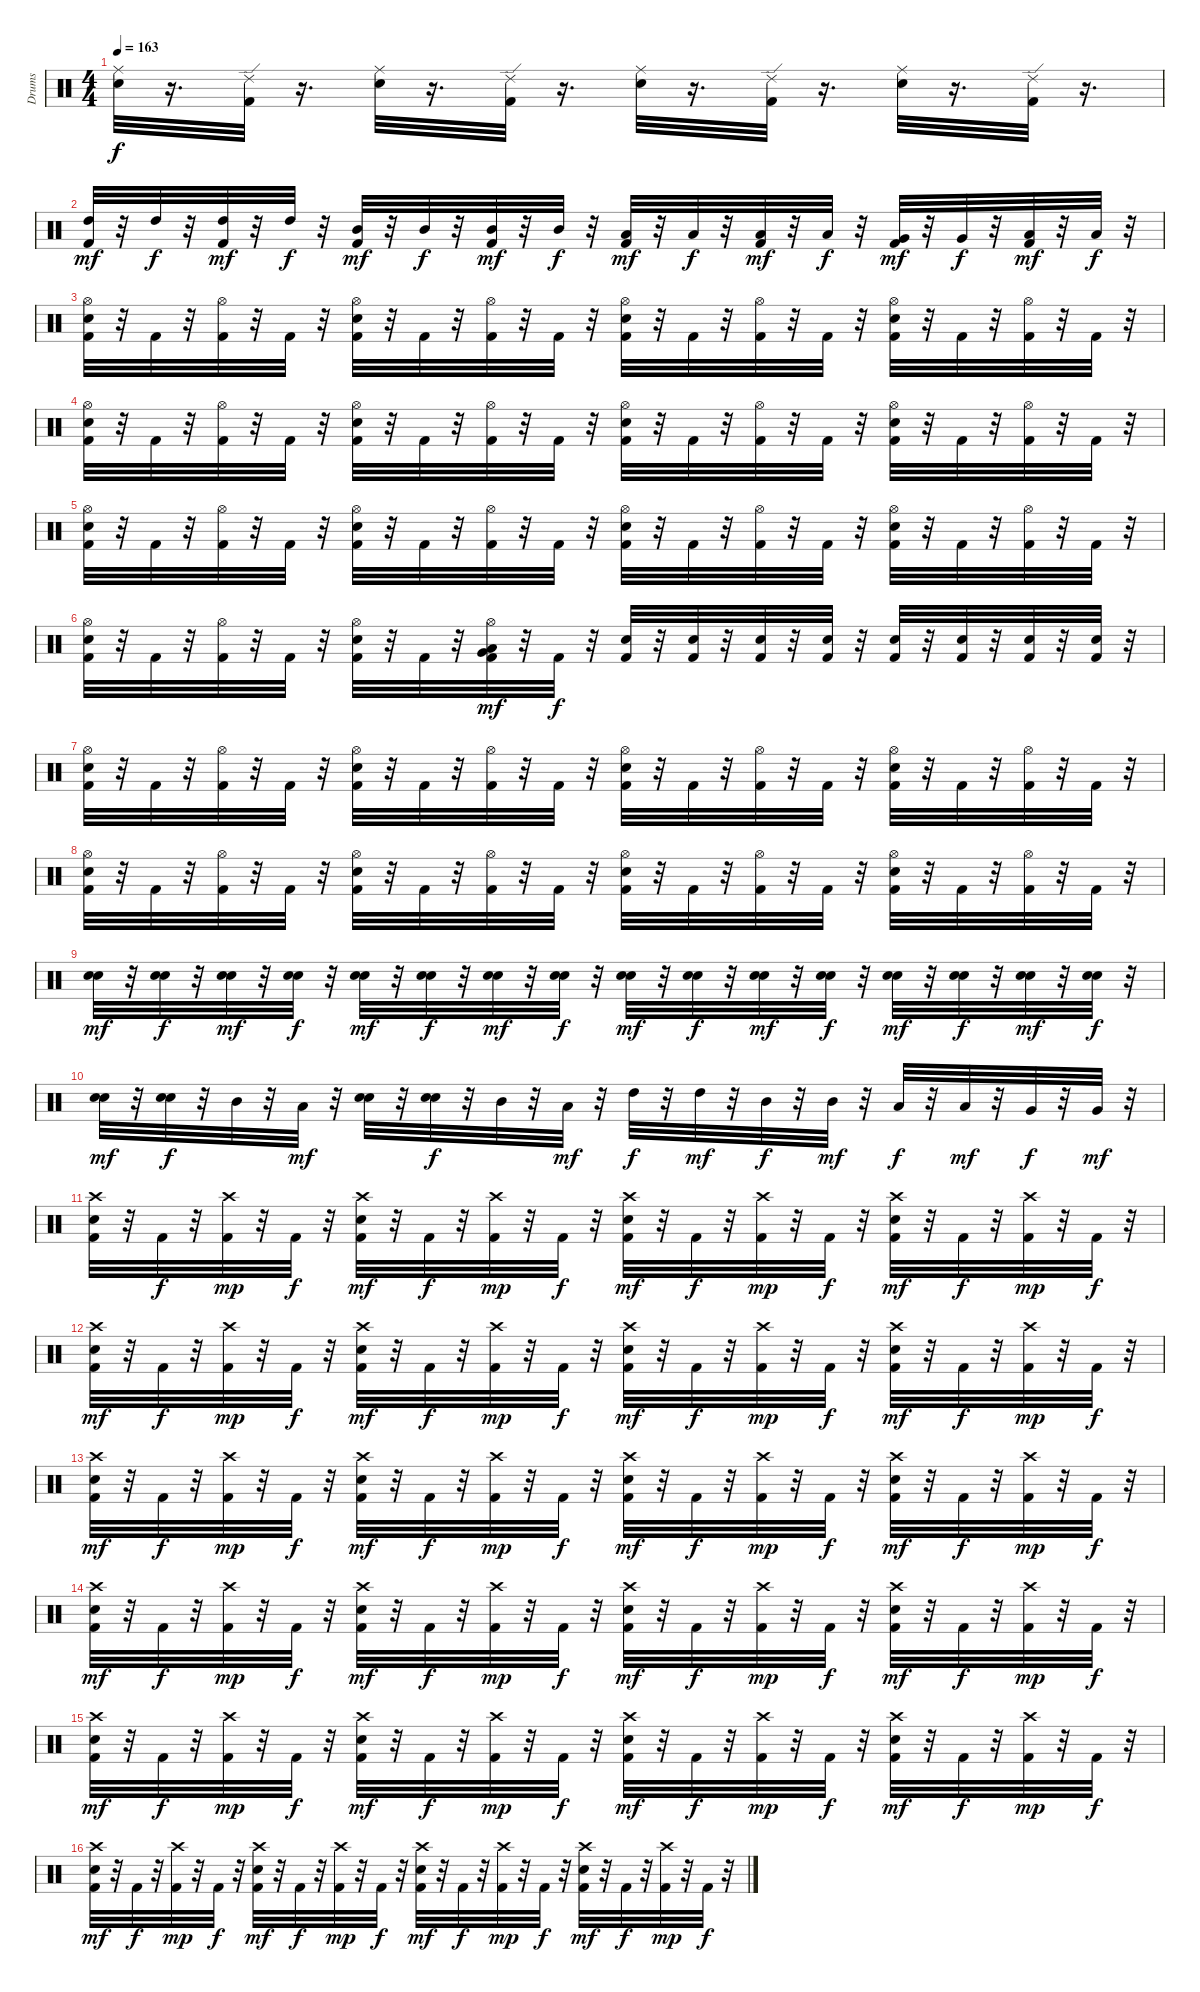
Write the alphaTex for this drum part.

\track ("Drums" "Drums") {instrument percussion}
\staff {score}
\articulation defaults
\ts (4 4)
\tempo 163
\clef neutral
\ks c
("Snare (hit) 2" "Ride (middle)").32{dy f} r.16{d} ("Kick (hit) 2" "Ride (edge) 2").32 r.16{d} ("Snare (hit) 2" "Ride (middle)").32 r.16{d} ("Kick (hit) 2" "Ride (edge) 2").32 r.16{d} ("Snare (hit) 2" "Ride (middle)").32 r.16{d} ("Kick (hit) 2" "Ride (edge) 2").32 r.16{d} ("Snare (hit) 2" "Ride (middle)").32 r.16{d} ("Kick (hit) 2" "Ride (edge) 2").32 r.16{d} |
("Kick (hit) 2" "High Tom (hit)").32{dy mf} r.32 "High Tom (hit)".32{dy f} r.32 ("Kick (hit) 2" "High Tom (hit)").32{dy mf} r.32 "High Tom (hit)".32{dy f} r.32 ("Kick (hit) 2" "Mid Tom (hit)").32{dy mf} r.32 "Mid Tom (hit)".32{dy f} r.32 ("Kick (hit) 2" "Mid Tom (hit)").32{dy mf} r.32 "Mid Tom (hit)".32{dy f} r.32 ("Kick (hit) 2" "Low Tom (hit)").32{dy mf} r.32 "Low Tom (hit)".32{dy f} r.32 ("Kick (hit) 2" "Low Tom (hit)").32{dy mf} r.32 "Low Tom (hit)".32{dy f} r.32 ("Kick (hit) 2" "Very Low Tom (hit)").32{dy mf} r.32 "Very Low Tom (hit)".32{dy f} r.32 ("Kick (hit) 2" "Low Floor Tom (hit)").32{dy mf} r.32 "Low Floor Tom (hit)".32{dy f} r.32 |
("Kick (hit) 2" "Snare (hit) 2" "Hi-Hat (open)").32 r.32 "Kick (hit) 2".32 r.32 ("Kick (hit) 2" "Hi-Hat (open)").32 r.32 "Kick (hit) 2".32 r.32 ("Kick (hit) 2" "Snare (hit) 2" "Hi-Hat (open)").32 r.32 "Kick (hit) 2".32 r.32 ("Kick (hit) 2" "Hi-Hat (open)").32 r.32 "Kick (hit) 2".32 r.32 ("Kick (hit) 2" "Snare (hit) 2" "Hi-Hat (open)").32 r.32 "Kick (hit) 2".32 r.32 ("Kick (hit) 2" "Hi-Hat (open)").32 r.32 "Kick (hit) 2".32 r.32 ("Kick (hit) 2" "Snare (hit) 2" "Hi-Hat (open)").32 r.32 "Kick (hit) 2".32 r.32 ("Kick (hit) 2" "Hi-Hat (open)").32 r.32 "Kick (hit) 2".32 r.32 |
("Kick (hit) 2" "Snare (hit) 2" "Hi-Hat (open)").32 r.32 "Kick (hit) 2".32 r.32 ("Kick (hit) 2" "Hi-Hat (open)").32 r.32 "Kick (hit) 2".32 r.32 ("Kick (hit) 2" "Snare (hit) 2" "Hi-Hat (open)").32 r.32 "Kick (hit) 2".32 r.32 ("Kick (hit) 2" "Hi-Hat (open)").32 r.32 "Kick (hit) 2".32 r.32 ("Kick (hit) 2" "Snare (hit) 2" "Hi-Hat (open)").32 r.32 "Kick (hit) 2".32 r.32 ("Kick (hit) 2" "Hi-Hat (open)").32 r.32 "Kick (hit) 2".32 r.32 ("Kick (hit) 2" "Snare (hit) 2" "Hi-Hat (open)").32 r.32 "Kick (hit) 2".32 r.32 ("Kick (hit) 2" "Hi-Hat (open)").32 r.32 "Kick (hit) 2".32 r.32 |
("Kick (hit) 2" "Snare (hit) 2" "Hi-Hat (open)").32 r.32 "Kick (hit) 2".32 r.32 ("Kick (hit) 2" "Hi-Hat (open)").32 r.32 "Kick (hit) 2".32 r.32 ("Kick (hit) 2" "Snare (hit) 2" "Hi-Hat (open)").32 r.32 "Kick (hit) 2".32 r.32 ("Kick (hit) 2" "Hi-Hat (open)").32 r.32 "Kick (hit) 2".32 r.32 ("Kick (hit) 2" "Snare (hit) 2" "Hi-Hat (open)").32 r.32 "Kick (hit) 2".32 r.32 ("Kick (hit) 2" "Hi-Hat (open)").32 r.32 "Kick (hit) 2".32 r.32 ("Kick (hit) 2" "Snare (hit) 2" "Hi-Hat (open)").32 r.32 "Kick (hit) 2".32 r.32 ("Kick (hit) 2" "Hi-Hat (open)").32 r.32 "Kick (hit) 2".32 r.32 |
("Kick (hit) 2" "Snare (hit) 2" "Hi-Hat (open)").32 r.32 "Kick (hit) 2".32 r.32 ("Kick (hit) 2" "Hi-Hat (open)").32 r.32 "Kick (hit) 2".32 r.32 ("Kick (hit) 2" "Snare (hit) 2" "Hi-Hat (open)").32 r.32 "Kick (hit) 2".32 r.32 ("Kick (hit) 2" "Low Floor Tom (hit)" "Very Low Tom (hit)" "Hi-Hat (open)").32{dy mf} r.32 "Kick (hit) 2".32{dy f} r.32 ("Kick (hit) 2" "Snare (hit) 2").32 r.32 ("Kick (hit) 2" "Snare (hit) 2").32 r.32 ("Kick (hit) 2" "Snare (hit) 2").32 r.32 ("Kick (hit) 2" "Snare (hit) 2").32 r.32 ("Snare (hit) 2" "Kick (hit) 2").32 r.32 ("Kick (hit) 2" "Snare (hit) 2").32 r.32 ("Snare (hit) 2" "Kick (hit) 2").32 r.32 ("Kick (hit) 2" "Snare (hit) 2").32 r.32 |
("Kick (hit) 2" "Snare (hit) 2" "Hi-Hat (open)").32 r.32 "Kick (hit) 2".32 r.32 ("Kick (hit) 2" "Hi-Hat (open)").32 r.32 "Kick (hit) 2".32 r.32 ("Kick (hit) 2" "Snare (hit) 2" "Hi-Hat (open)").32 r.32 "Kick (hit) 2".32 r.32 ("Kick (hit) 2" "Hi-Hat (open)").32 r.32 "Kick (hit) 2".32 r.32 ("Kick (hit) 2" "Snare (hit) 2" "Hi-Hat (open)").32 r.32 "Kick (hit) 2".32 r.32 ("Kick (hit) 2" "Hi-Hat (open)").32 r.32 "Kick (hit) 2".32 r.32 ("Kick (hit) 2" "Snare (hit) 2" "Hi-Hat (open)").32 r.32 "Kick (hit) 2".32 r.32 ("Kick (hit) 2" "Hi-Hat (open)").32 r.32 "Kick (hit) 2".32 r.32 |
("Kick (hit) 2" "Snare (hit) 2" "Hi-Hat (open)").32 r.32 "Kick (hit) 2".32 r.32 ("Kick (hit) 2" "Hi-Hat (open)").32 r.32 "Kick (hit) 2".32 r.32 ("Kick (hit) 2" "Snare (hit) 2" "Hi-Hat (open)").32 r.32 "Kick (hit) 2".32 r.32 ("Kick (hit) 2" "Hi-Hat (open)").32 r.32 "Kick (hit) 2".32 r.32 ("Kick (hit) 2" "Snare (hit) 2" "Hi-Hat (open)").32 r.32 "Kick (hit) 2".32 r.32 ("Kick (hit) 2" "Hi-Hat (open)").32 r.32 "Kick (hit) 2".32 r.32 ("Kick (hit) 2" "Snare (hit) 2" "Hi-Hat (open)").32 r.32 "Kick (hit) 2".32 r.32 ("Kick (hit) 2" "Hi-Hat (open)").32 r.32 "Kick (hit) 2".32 r.32 |
("Snare (hit) 2" "Electric Snare (hit)").32{dy mf} r.32 ("Snare (hit) 2" "Electric Snare (hit)").32{dy f} r.32 ("Snare (hit) 2" "Electric Snare (hit)").32{dy mf} r.32 ("Snare (hit) 2" "Electric Snare (hit)").32{dy f} r.32 ("Snare (hit) 2" "Electric Snare (hit)").32{dy mf} r.32 ("Snare (hit) 2" "Electric Snare (hit)").32{dy f} r.32 ("Snare (hit) 2" "Electric Snare (hit)").32{dy mf} r.32 ("Snare (hit) 2" "Electric Snare (hit)").32{dy f} r.32 ("Snare (hit) 2" "Electric Snare (hit)").32{dy mf} r.32 ("Snare (hit) 2" "Electric Snare (hit)").32{dy f} r.32 ("Snare (hit) 2" "Electric Snare (hit)").32{dy mf} r.32 ("Snare (hit) 2" "Electric Snare (hit)").32{dy f} r.32 ("Snare (hit) 2" "Electric Snare (hit)").32{dy mf} r.32 ("Snare (hit) 2" "Electric Snare (hit)").32{dy f} r.32 ("Snare (hit) 2" "Electric Snare (hit)").32{dy mf} r.32 ("Snare (hit) 2" "Electric Snare (hit)").32{dy f} r.32 |
("Snare (hit) 2" "Electric Snare (hit)").32{dy mf} r.32 ("Snare (hit) 2" "Electric Snare (hit)").32{dy f} r.32 "Mid Tom (hit)".32 r.32 "Low Tom (hit)".32{dy mf} r.32 ("Snare (hit) 2" "Electric Snare (hit)").32 r.32 ("Snare (hit) 2" "Electric Snare (hit)").32{dy f} r.32 "Mid Tom (hit)".32 r.32 "Low Tom (hit)".32{dy mf} r.32 "High Tom (hit)".32{dy f} r.32 "High Tom (hit)".32{dy mf} r.32 "Mid Tom (hit)".32{dy f} r.32 "Mid Tom (hit)".32{dy mf} r.32 "Low Tom (hit)".32{dy f} r.32 "Low Tom (hit)".32{dy mf} r.32 "Very Low Tom (hit)".32{dy f} r.32 "Very Low Tom (hit)".32{dy mf} r.32 |
("Kick (hit) 2" "Snare (hit) 2" "Crash high (hit)").32 r.32 "Kick (hit) 2".32{dy f} r.32 ("Kick (hit) 2" "Crash high (hit)").32{dy mp} r.32 "Kick (hit) 2".32{dy f} r.32 ("Kick (hit) 2" "Snare (hit) 2" "Crash high (hit)").32{dy mf} r.32 "Kick (hit) 2".32{dy f} r.32 ("Kick (hit) 2" "Crash high (hit)").32{dy mp} r.32 "Kick (hit) 2".32{dy f} r.32 ("Kick (hit) 2" "Snare (hit) 2" "Crash high (hit)").32{dy mf} r.32 "Kick (hit) 2".32{dy f} r.32 ("Kick (hit) 2" "Crash high (hit)").32{dy mp} r.32 "Kick (hit) 2".32{dy f} r.32 ("Kick (hit) 2" "Snare (hit) 2" "Crash high (hit)").32{dy mf} r.32 "Kick (hit) 2".32{dy f} r.32 ("Kick (hit) 2" "Crash high (hit)").32{dy mp} r.32 "Kick (hit) 2".32{dy f} r.32 |
("Kick (hit) 2" "Snare (hit) 2" "Crash high (hit)").32{dy mf} r.32 "Kick (hit) 2".32{dy f} r.32 ("Kick (hit) 2" "Crash high (hit)").32{dy mp} r.32 "Kick (hit) 2".32{dy f} r.32 ("Kick (hit) 2" "Snare (hit) 2" "Crash high (hit)").32{dy mf} r.32 "Kick (hit) 2".32{dy f} r.32 ("Kick (hit) 2" "Crash high (hit)").32{dy mp} r.32 "Kick (hit) 2".32{dy f} r.32 ("Kick (hit) 2" "Snare (hit) 2" "Crash high (hit)").32{dy mf} r.32 "Kick (hit) 2".32{dy f} r.32 ("Kick (hit) 2" "Crash high (hit)").32{dy mp} r.32 "Kick (hit) 2".32{dy f} r.32 ("Kick (hit) 2" "Snare (hit) 2" "Crash high (hit)").32{dy mf} r.32 "Kick (hit) 2".32{dy f} r.32 ("Kick (hit) 2" "Crash high (hit)").32{dy mp} r.32 "Kick (hit) 2".32{dy f} r.32 |
("Kick (hit) 2" "Snare (hit) 2" "Crash high (hit)").32{dy mf} r.32 "Kick (hit) 2".32{dy f} r.32 ("Kick (hit) 2" "Crash high (hit)").32{dy mp} r.32 "Kick (hit) 2".32{dy f} r.32 ("Kick (hit) 2" "Snare (hit) 2" "Crash high (hit)").32{dy mf} r.32 "Kick (hit) 2".32{dy f} r.32 ("Kick (hit) 2" "Crash high (hit)").32{dy mp} r.32 "Kick (hit) 2".32{dy f} r.32 ("Kick (hit) 2" "Snare (hit) 2" "Crash high (hit)").32{dy mf} r.32 "Kick (hit) 2".32{dy f} r.32 ("Kick (hit) 2" "Crash high (hit)").32{dy mp} r.32 "Kick (hit) 2".32{dy f} r.32 ("Kick (hit) 2" "Snare (hit) 2" "Crash high (hit)").32{dy mf} r.32 "Kick (hit) 2".32{dy f} r.32 ("Kick (hit) 2" "Crash high (hit)").32{dy mp} r.32 "Kick (hit) 2".32{dy f} r.32 |
("Kick (hit) 2" "Snare (hit) 2" "Crash high (hit)").32{dy mf} r.32 "Kick (hit) 2".32{dy f} r.32 ("Kick (hit) 2" "Crash high (hit)").32{dy mp} r.32 "Kick (hit) 2".32{dy f} r.32 ("Kick (hit) 2" "Snare (hit) 2" "Crash high (hit)").32{dy mf} r.32 "Kick (hit) 2".32{dy f} r.32 ("Kick (hit) 2" "Crash high (hit)").32{dy mp} r.32 "Kick (hit) 2".32{dy f} r.32 ("Kick (hit) 2" "Snare (hit) 2" "Crash high (hit)").32{dy mf} r.32 "Kick (hit) 2".32{dy f} r.32 ("Kick (hit) 2" "Crash high (hit)").32{dy mp} r.32 "Kick (hit) 2".32{dy f} r.32 ("Kick (hit) 2" "Snare (hit) 2" "Crash high (hit)").32{dy mf} r.32 "Kick (hit) 2".32{dy f} r.32 ("Kick (hit) 2" "Crash high (hit)").32{dy mp} r.32 "Kick (hit) 2".32{dy f} r.32 |
("Kick (hit) 2" "Snare (hit) 2" "Crash high (hit)").32{dy mf} r.32 "Kick (hit) 2".32{dy f} r.32 ("Kick (hit) 2" "Crash high (hit)").32{dy mp} r.32 "Kick (hit) 2".32{dy f} r.32 ("Kick (hit) 2" "Snare (hit) 2" "Crash high (hit)").32{dy mf} r.32 "Kick (hit) 2".32{dy f} r.32 ("Kick (hit) 2" "Crash high (hit)").32{dy mp} r.32 "Kick (hit) 2".32{dy f} r.32 ("Kick (hit) 2" "Snare (hit) 2" "Crash high (hit)").32{dy mf} r.32 "Kick (hit) 2".32{dy f} r.32 ("Kick (hit) 2" "Crash high (hit)").32{dy mp} r.32 "Kick (hit) 2".32{dy f} r.32 ("Kick (hit) 2" "Snare (hit) 2" "Crash high (hit)").32{dy mf} r.32 "Kick (hit) 2".32{dy f} r.32 ("Kick (hit) 2" "Crash high (hit)").32{dy mp} r.32 "Kick (hit) 2".32{dy f} r.32 |
("Kick (hit) 2" "Snare (hit) 2" "Crash high (hit)").32{dy mf} r.32 "Kick (hit) 2".32{dy f} r.32 ("Kick (hit) 2" "Crash high (hit)").32{dy mp} r.32 "Kick (hit) 2".32{dy f} r.32 ("Kick (hit) 2" "Snare (hit) 2" "Crash high (hit)").32{dy mf} r.32 "Kick (hit) 2".32{dy f} r.32 ("Kick (hit) 2" "Crash high (hit)").32{dy mp} r.32 "Kick (hit) 2".32{dy f} r.32 ("Kick (hit) 2" "Snare (hit) 2" "Crash high (hit)").32{dy mf} r.32 "Kick (hit) 2".32{dy f} r.32 ("Kick (hit) 2" "Crash high (hit)").32{dy mp} r.32 "Kick (hit) 2".32{dy f} r.32 ("Kick (hit) 2" "Snare (hit) 2" "Crash high (hit)").32{dy mf} r.32 "Kick (hit) 2".32{dy f} r.32 ("Kick (hit) 2" "Crash high (hit)").32{dy mp} r.32 "Kick (hit) 2".32{dy f} r.32
